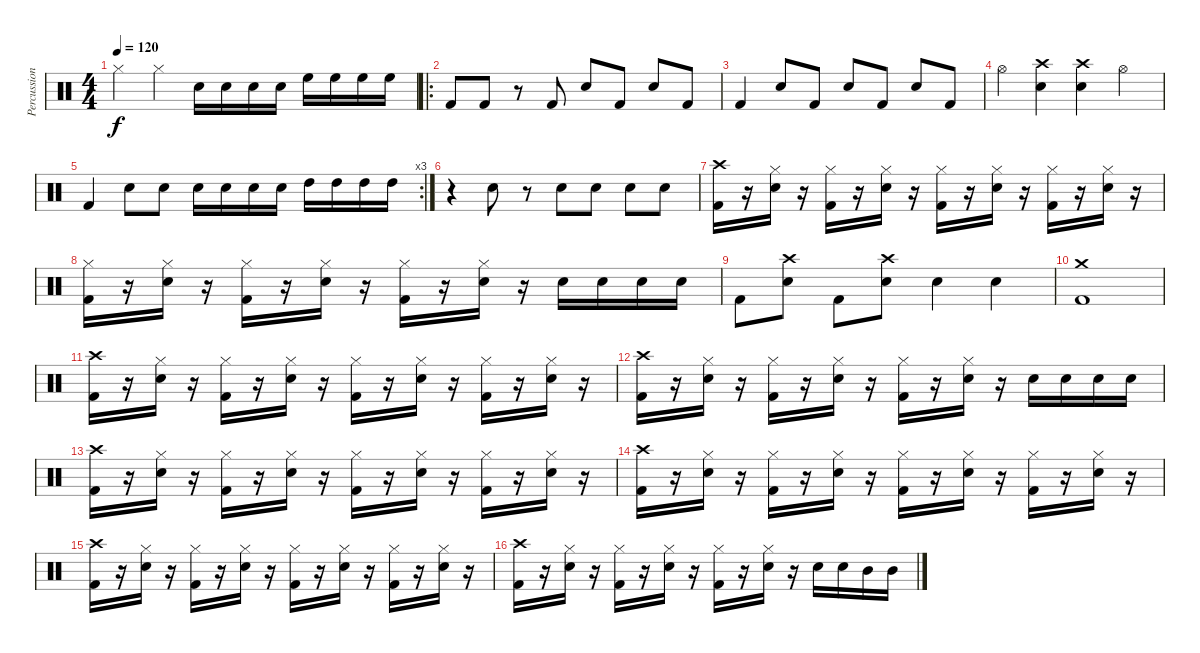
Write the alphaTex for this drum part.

\track ("Percussions" "Percussion") {instrument percussion}
\staff {score}
\articulation defaults
\ts (4 4)
\tempo 120
\clef neutral
\ks c "Hi-Hat (closed)".4{dy f} "Hi-Hat (closed)".4 "Electric Snare (hit)".16 "Electric Snare (hit)".16 "Electric Snare (hit)".16 "Electric Snare (hit)".16 "High Floor Tom (hit)".16 "High Floor Tom (hit)".16 "High Floor Tom (hit)".16 "High Floor Tom (hit)".16
|
\ro "Kick (hit) 2".8 "Kick (hit) 2".8
r.8 "Kick (hit) 2".8 "Electric Snare (hit)".8 "Kick (hit) 2".8 "Electric Snare (hit)".8 "Kick (hit) 2".8 |
"Kick (hit) 2".4 "Electric Snare (hit)".8 "Kick (hit) 2".8 "Electric Snare (hit)".8 "Kick (hit) 2".8 "Electric Snare (hit)".8 "Kick (hit) 2".8 |
"Hi-Hat (open)".4 ("Crash high (hit)" "Electric Snare (hit)").4 ("Crash high (hit)" "Electric Snare (hit)").4 "Hi-Hat (open)".4 |
\rc 3 "Kick (hit) 2".4 "Electric Snare (hit)".8 "Electric Snare (hit)".8 "Electric Snare (hit)".16 "Electric Snare (hit)".16 "Electric Snare (hit)".16 "Electric Snare (hit)".16 "High Tom (hit)".16 "High Tom (hit)".16 "High Tom (hit)".16 "High Tom (hit)".16
|
r.4 "Electric Snare (hit)".8 r.8 "Electric Snare (hit)".8 "Electric Snare (hit)".8 "Electric Snare (hit)".8 "Electric Snare (hit)".8 |
("Crash high (hit)" "Kick (hit) 2").16 r.16 ("Hi-Hat (closed)" "Electric Snare (hit)").16 r.16 ("Hi-Hat (closed)" "Kick (hit) 2").16 r.16 ("Hi-Hat (closed)" "Electric Snare (hit)").16 r.16 ("Hi-Hat (closed)" "Kick (hit) 2").16 r.16 ("Hi-Hat (closed)" "Electric Snare (hit)").16 r.16 ("Hi-Hat (closed)" "Kick (hit) 2").16 r.16 ("Hi-Hat (closed)" "Electric Snare (hit)").16 r.16 |
("Hi-Hat (closed)" "Kick (hit) 2").16 r.16 ("Hi-Hat (closed)" "Electric Snare (hit)").16 r.16 ("Hi-Hat (closed)" "Kick (hit) 2").16 r.16 ("Hi-Hat (closed)" "Electric Snare (hit)").16 r.16 ("Hi-Hat (closed)" "Kick (hit) 2").16 r.16 ("Hi-Hat (closed)" "Electric Snare (hit)").16 r.16 "Electric Snare (hit)".16 "Electric Snare (hit)".16 "Electric Snare (hit)".16 "Electric Snare (hit)".16 |
"Kick (hit) 2".8 ("Crash high (hit)" "Electric Snare (hit)").8 "Kick (hit) 2".8 ("Crash high (hit)" "Electric Snare (hit)").8 "Electric Snare (hit)".4 "Electric Snare (hit)".4 |
("Crash medium (hit)" "Kick (hit) 2").1 |
("Crash high (hit)" "Kick (hit) 2").16 r.16 ("Hi-Hat (closed)" "Electric Snare (hit)").16 r.16 ("Hi-Hat (closed)" "Kick (hit) 2").16 r.16 ("Hi-Hat (closed)" "Electric Snare (hit)").16 r.16 ("Hi-Hat (closed)" "Kick (hit) 2").16 r.16 ("Hi-Hat (closed)" "Electric Snare (hit)").16 r.16 ("Hi-Hat (closed)" "Kick (hit) 2").16 r.16 ("Hi-Hat (closed)" "Electric Snare (hit)").16 r.16 |
("Crash high (hit)" "Kick (hit) 2").16 r.16 ("Hi-Hat (closed)" "Electric Snare (hit)").16 r.16 ("Hi-Hat (closed)" "Kick (hit) 2").16 r.16 ("Hi-Hat (closed)" "Electric Snare (hit)").16 r.16 ("Hi-Hat (closed)" "Kick (hit) 2").16 r.16 ("Hi-Hat (closed)" "Electric Snare (hit)").16 r.16 "Electric Snare (hit)".16 "Electric Snare (hit)".16 "Electric Snare (hit)".16 "Electric Snare (hit)".16 |
("Crash high (hit)" "Kick (hit) 2").16 r.16 ("Hi-Hat (closed)" "Electric Snare (hit)").16 r.16 ("Hi-Hat (closed)" "Kick (hit) 2").16 r.16 ("Hi-Hat (closed)" "Electric Snare (hit)").16 r.16 ("Hi-Hat (closed)" "Kick (hit) 2").16 r.16 ("Hi-Hat (closed)" "Electric Snare (hit)").16 r.16 ("Hi-Hat (closed)" "Kick (hit) 2").16 r.16 ("Hi-Hat (closed)" "Electric Snare (hit)").16 r.16 |
("Crash high (hit)" "Kick (hit) 2").16 r.16 ("Hi-Hat (closed)" "Electric Snare (hit)").16 r.16 ("Hi-Hat (closed)" "Kick (hit) 2").16 r.16 ("Hi-Hat (closed)" "Electric Snare (hit)").16 r.16 ("Hi-Hat (closed)" "Kick (hit) 2").16 r.16 ("Hi-Hat (closed)" "Electric Snare (hit)").16 r.16 ("Hi-Hat (closed)" "Kick (hit) 2").16 r.16 ("Hi-Hat (closed)" "Electric Snare (hit)").16 r.16 |
("Crash high (hit)" "Kick (hit) 2").16 r.16 ("Hi-Hat (closed)" "Electric Snare (hit)").16 r.16 ("Hi-Hat (closed)" "Kick (hit) 2").16 r.16 ("Hi-Hat (closed)" "Electric Snare (hit)").16 r.16 ("Hi-Hat (closed)" "Kick (hit) 2").16 r.16 ("Hi-Hat (closed)" "Electric Snare (hit)").16 r.16 ("Hi-Hat (closed)" "Kick (hit) 2").16 r.16 ("Hi-Hat (closed)" "Electric Snare (hit)").16 r.16 |
("Crash high (hit)" "Kick (hit) 2").16 r.16 ("Hi-Hat (closed)" "Electric Snare (hit)").16 r.16 ("Hi-Hat (closed)" "Kick (hit) 2").16 r.16 ("Hi-Hat (closed)" "Electric Snare (hit)").16 r.16 ("Hi-Hat (closed)" "Kick (hit) 2").16 r.16 ("Hi-Hat (closed)" "Electric Snare (hit)").16 r.16 "Electric Snare (hit)".16 "Electric Snare (hit)".16 "Mid Tom (hit)".16 "Mid Tom (hit)".16
